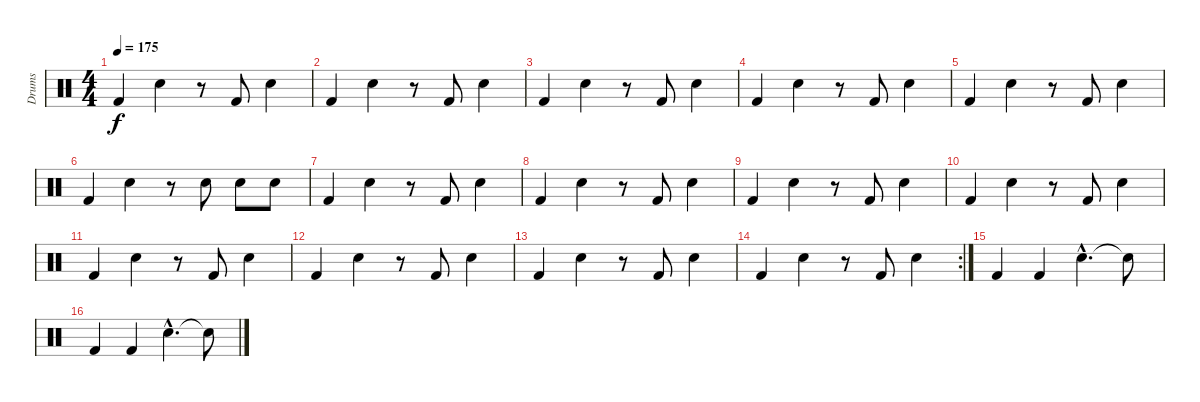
\track ("Drums" "Drums") {instrument percussion}
\staff {score}
\articulation defaults
\ts (4 4)
\tempo 175
\clef neutral
\ks c "Kick (hit) 2".4{dy f} "Electric Snare (hit)".4
r.8 "Kick (hit) 2".8 "Electric Snare (hit)".4 |
"Kick (hit) 2".4 "Electric Snare (hit)".4 r.8 "Kick (hit) 2".8 "Electric Snare (hit)".4 |
"Kick (hit) 2".4 "Electric Snare (hit)".4 r.8 "Kick (hit) 2".8 "Electric Snare (hit)".4 |
"Kick (hit) 2".4 "Electric Snare (hit)".4 r.8 "Kick (hit) 2".8 "Electric Snare (hit)".4 |
"Kick (hit) 2".4 "Electric Snare (hit)".4 r.8 "Kick (hit) 2".8 "Electric Snare (hit)".4 |
"Kick (hit) 2".4 "Electric Snare (hit)".4 r.8 "Electric Snare (hit)".8 "Electric Snare (hit)".8 "Electric Snare (hit)".8 |
"Kick (hit) 2".4 "Electric Snare (hit)".4 r.8 "Kick (hit) 2".8 "Electric Snare (hit)".4 |
"Kick (hit) 2".4 "Electric Snare (hit)".4 r.8 "Kick (hit) 2".8 "Electric Snare (hit)".4 |
"Kick (hit) 2".4 "Electric Snare (hit)".4 r.8 "Kick (hit) 2".8 "Electric Snare (hit)".4 |
"Kick (hit) 2".4 "Electric Snare (hit)".4 r.8 "Kick (hit) 2".8 "Electric Snare (hit)".4 |
"Kick (hit) 2".4 "Electric Snare (hit)".4 r.8 "Kick (hit) 2".8 "Electric Snare (hit)".4 |
"Kick (hit) 2".4 "Electric Snare (hit)".4 r.8 "Kick (hit) 2".8 "Electric Snare (hit)".4 |
"Kick (hit) 2".4 "Electric Snare (hit)".4 r.8 "Kick (hit) 2".8 "Electric Snare (hit)".4 |
\rc 2 "Kick (hit) 2".4 "Electric Snare (hit)".4
r.8 "Kick (hit) 2".8 "Electric Snare (hit)".4 |
"Kick (hit) 2".4 "Kick (hit) 2".4 "Electric Snare (hit)"{hac}.4{d} "Snare (hit)"{t}.8 |
"Kick (hit) 2".4 "Kick (hit) 2".4 "Electric Snare (hit)"{hac}.4{d} "Snare (hit)"{t}.8
